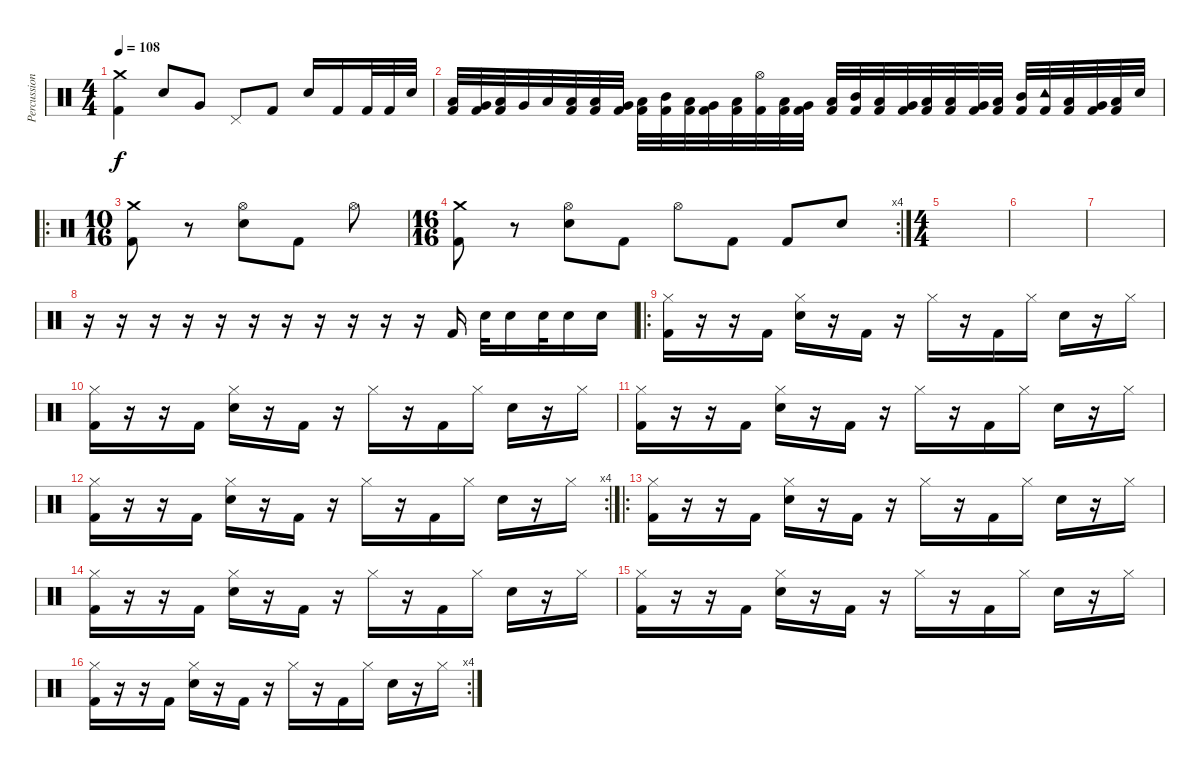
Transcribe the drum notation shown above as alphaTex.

\track ("Percussions" "Percussion") {instrument percussion}
\staff {score}
\articulation defaults
\ts (4 4)
\tempo 108
\clef neutral
\ks c
("Crash medium (hit)" "Kick (hit) 2").4{dy f} "Electric Snare (hit)".8 "Very Low Tom (hit)".8 "Pedal Hi-Hat (hit)".8 "Kick (hit) 2".8 "Electric Snare (hit)".16 "Kick (hit) 2".16 "Kick (hit) 2".32 "Kick (hit) 2".32 "Electric Snare (hit)".32 |
("Low Floor Tom (hit)" "Kick (hit) 2").32 ("Very Low Tom (hit)" "Kick (hit) 2").32 ("Low Tom (hit)" "Kick (hit) 2").32 "Very Low Tom (hit)".32 "Low Floor Tom (hit)".32 ("Low Tom (hit)" "Kick (hit) 2").32 ("Low Tom (hit)" "Kick (hit) 2").32 ("Very Low Tom (hit)" "Kick (hit) 2").32 ("Low Tom (hit)" "Kick (hit) 2").32 ("Mid Tom (hit)" "Kick (hit) 2").32 ("Low Tom (hit)" "Kick (hit) 2").32 ("Very Low Tom (hit)" "Kick (hit) 2").32 ("Low Tom (hit)" "Kick (hit) 2").32 ("Hi-Hat (open)" "Kick (hit) 2").32 ("Low Tom (hit)" "Kick (hit) 2").32 ("Very Low Tom (hit)" "Kick (hit) 2").32 ("Low Tom (hit)" "Kick (hit) 2").32 ("Mid Tom (hit)" "Kick (hit) 2").32 ("Low Floor Tom (hit)" "Kick (hit) 2").32 ("Very Low Tom (hit)" "Kick (hit) 2").32 ("Low Tom (hit)" "Kick (hit) 2").32 ("Low Floor Tom (hit)" "Kick (hit) 2").32 ("Very Low Tom (hit)" "Kick (hit) 2").32 ("Low Tom (hit)" "Kick (hit) 2").32 ("Mid Tom (hit)" "Kick (hit) 2").32 ("Tambourine (hit)" "Kick (hit) 2").32 ("Low Floor Tom (hit)" "Kick (hit) 2").32 ("Very Low Tom (hit)" "Kick (hit) 2").32 ("Low Tom (hit)" "Kick (hit) 2").32 "Electric Snare (hit)".32 |
\ro
\ts (10 16)
("Kick (hit) 2" "Crash medium (hit)").8 r.8 ("Electric Snare (hit)" "Hi-Hat (open)").8 "Kick (hit) 2".8 "Hi-Hat (open)".8 |
\rc 4
\ts (16 16)
("Kick (hit) 2" "Crash medium (hit)").8 r.8 ("Electric Snare (hit)" "Hi-Hat (open)").8 "Kick (hit) 2".8 "Hi-Hat (open)".8 "Kick (hit) 2".8 "Kick (hit) 2".8 "Electric Snare (hit)".8 |
\ts (4 4)
|
|
|
r.16 r.16 r.16 r.16 r.16 r.16 r.16 r.16 r.16 r.16 r.16 "Kick (hit) 2".16 "Electric Snare (hit)".32 "Electric Snare (hit)".16 "Electric Snare (hit)".32 "Electric Snare (hit)".16 "Electric Snare (hit)".16 |
\ro
("Kick (hit) 2" "Hi-Hat (closed)").16 r.16 r.16 "Kick (hit) 2".16 ("Electric Snare (hit)" "Hi-Hat (closed)").16 r.16 "Kick (hit) 2".16 r.16 "Hi-Hat (closed)".16 r.16 "Kick (hit) 2".16 "Hi-Hat (closed)".16 "Electric Snare (hit)".16 r.16 "Hi-Hat (closed)".16 |
("Kick (hit) 2" "Hi-Hat (closed)").16 r.16 r.16 "Kick (hit) 2".16 ("Electric Snare (hit)" "Hi-Hat (closed)").16 r.16 "Kick (hit) 2".16 r.16 "Hi-Hat (closed)".16 r.16 "Kick (hit) 2".16 "Hi-Hat (closed)".16 "Electric Snare (hit)".16 r.16 "Hi-Hat (closed)".16 |
("Kick (hit) 2" "Hi-Hat (closed)").16 r.16 r.16 "Kick (hit) 2".16 ("Electric Snare (hit)" "Hi-Hat (closed)").16 r.16 "Kick (hit) 2".16 r.16 "Hi-Hat (closed)".16 r.16 "Kick (hit) 2".16 "Hi-Hat (closed)".16 "Electric Snare (hit)".16 r.16 "Hi-Hat (closed)".16 |
\rc 4
("Kick (hit) 2" "Hi-Hat (closed)").16 r.16 r.16 "Kick (hit) 2".16 ("Electric Snare (hit)" "Hi-Hat (closed)").16 r.16 "Kick (hit) 2".16 r.16 "Hi-Hat (closed)".16 r.16 "Kick (hit) 2".16 "Hi-Hat (closed)".16 "Electric Snare (hit)".16 r.16 "Hi-Hat (closed)".16 |
\ro
("Kick (hit) 2" "Hi-Hat (closed)").16 r.16 r.16 "Kick (hit) 2".16 ("Electric Snare (hit)" "Hi-Hat (closed)").16 r.16 "Kick (hit) 2".16 r.16 "Hi-Hat (closed)".16 r.16 "Kick (hit) 2".16 "Hi-Hat (closed)".16 "Electric Snare (hit)".16 r.16 "Hi-Hat (closed)".16 |
("Kick (hit) 2" "Hi-Hat (closed)").16 r.16 r.16 "Kick (hit) 2".16 ("Electric Snare (hit)" "Hi-Hat (closed)").16 r.16 "Kick (hit) 2".16 r.16 "Hi-Hat (closed)".16 r.16 "Kick (hit) 2".16 "Hi-Hat (closed)".16 "Electric Snare (hit)".16 r.16 "Hi-Hat (closed)".16 |
("Kick (hit) 2" "Hi-Hat (closed)").16 r.16 r.16 "Kick (hit) 2".16 ("Electric Snare (hit)" "Hi-Hat (closed)").16 r.16 "Kick (hit) 2".16 r.16 "Hi-Hat (closed)".16 r.16 "Kick (hit) 2".16 "Hi-Hat (closed)".16 "Electric Snare (hit)".16 r.16 "Hi-Hat (closed)".16 |
\rc 4
("Kick (hit) 2" "Hi-Hat (closed)").16 r.16 r.16 "Kick (hit) 2".16 ("Electric Snare (hit)" "Hi-Hat (closed)").16 r.16 "Kick (hit) 2".16 r.16 "Hi-Hat (closed)".16 r.16 "Kick (hit) 2".16 "Hi-Hat (closed)".16 "Electric Snare (hit)".16 r.16 "Hi-Hat (closed)".16
